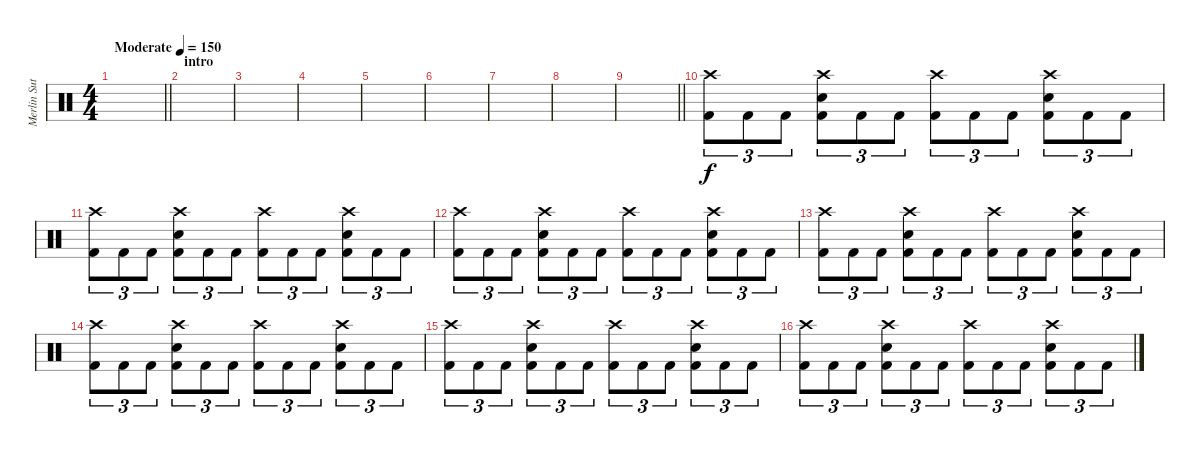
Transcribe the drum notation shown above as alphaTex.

\track ("Merlin Sutter" "Merlin Sut") {instrument percussion}
\staff {score}
\articulation defaults
\ts (4 4)
\tempo (150 "Moderate")
\clef neutral
\barLineRight lightlight
\ks c
|
\section ("" "intro")
|
|
|
|
|
|
|
\barLineRight lightlight
|
\section ("" "")
("Crash high (hit)" "Kick (hit) 2").8{tu (3 2)} "Kick (hit) 2".8{tu (3 2)} "Kick (hit) 2".8{tu (3 2)} ("Crash high (hit)" "Snare (hit) 2" "Kick (hit) 2").8{tu (3 2)} "Kick (hit) 2".8{tu (3 2)} "Kick (hit) 2".8{tu (3 2)} ("Crash high (hit)" "Kick (hit) 2").8{tu (3 2)} "Kick (hit) 2".8{tu (3 2)} "Kick (hit) 2".8{tu (3 2)} ("Crash high (hit)" "Snare (hit) 2" "Kick (hit) 2").8{tu (3 2)} "Kick (hit) 2".8{tu (3 2)} "Kick (hit) 2".8{tu (3 2)} |
("Crash high (hit)" "Kick (hit) 2").8{tu (3 2)} "Kick (hit) 2".8{tu (3 2)} "Kick (hit) 2".8{tu (3 2)} ("Crash high (hit)" "Snare (hit) 2" "Kick (hit) 2").8{tu (3 2)} "Kick (hit) 2".8{tu (3 2)} "Kick (hit) 2".8{tu (3 2)} ("Crash high (hit)" "Kick (hit) 2").8{tu (3 2)} "Kick (hit) 2".8{tu (3 2)} "Kick (hit) 2".8{tu (3 2)} ("Crash high (hit)" "Snare (hit) 2" "Kick (hit) 2").8{tu (3 2)} "Kick (hit) 2".8{tu (3 2)} "Kick (hit) 2".8{tu (3 2)} |
("Crash high (hit)" "Kick (hit) 2").8{tu (3 2)} "Kick (hit) 2".8{tu (3 2)} "Kick (hit) 2".8{tu (3 2)} ("Crash high (hit)" "Snare (hit) 2" "Kick (hit) 2").8{tu (3 2)} "Kick (hit) 2".8{tu (3 2)} "Kick (hit) 2".8{tu (3 2)} ("Crash high (hit)" "Kick (hit) 2").8{tu (3 2)} "Kick (hit) 2".8{tu (3 2)} "Kick (hit) 2".8{tu (3 2)} ("Crash high (hit)" "Snare (hit) 2" "Kick (hit) 2").8{tu (3 2)} "Kick (hit) 2".8{tu (3 2)} "Kick (hit) 2".8{tu (3 2)} |
("Crash high (hit)" "Kick (hit) 2").8{tu (3 2)} "Kick (hit) 2".8{tu (3 2)} "Kick (hit) 2".8{tu (3 2)} ("Crash high (hit)" "Snare (hit) 2" "Kick (hit) 2").8{tu (3 2)} "Kick (hit) 2".8{tu (3 2)} "Kick (hit) 2".8{tu (3 2)} ("Crash high (hit)" "Kick (hit) 2").8{tu (3 2)} "Kick (hit) 2".8{tu (3 2)} "Kick (hit) 2".8{tu (3 2)} ("Crash high (hit)" "Snare (hit) 2" "Kick (hit) 2").8{tu (3 2)} "Kick (hit) 2".8{tu (3 2)} "Kick (hit) 2".8{tu (3 2)} |
("Crash high (hit)" "Kick (hit) 2").8{tu (3 2)} "Kick (hit) 2".8{tu (3 2)} "Kick (hit) 2".8{tu (3 2)} ("Crash high (hit)" "Snare (hit) 2" "Kick (hit) 2").8{tu (3 2)} "Kick (hit) 2".8{tu (3 2)} "Kick (hit) 2".8{tu (3 2)} ("Crash high (hit)" "Kick (hit) 2").8{tu (3 2)} "Kick (hit) 2".8{tu (3 2)} "Kick (hit) 2".8{tu (3 2)} ("Crash high (hit)" "Snare (hit) 2" "Kick (hit) 2").8{tu (3 2)} "Kick (hit) 2".8{tu (3 2)} "Kick (hit) 2".8{tu (3 2)} |
("Crash high (hit)" "Kick (hit) 2").8{tu (3 2)} "Kick (hit) 2".8{tu (3 2)} "Kick (hit) 2".8{tu (3 2)} ("Crash high (hit)" "Snare (hit) 2" "Kick (hit) 2").8{tu (3 2)} "Kick (hit) 2".8{tu (3 2)} "Kick (hit) 2".8{tu (3 2)} ("Crash high (hit)" "Kick (hit) 2").8{tu (3 2)} "Kick (hit) 2".8{tu (3 2)} "Kick (hit) 2".8{tu (3 2)} ("Crash high (hit)" "Snare (hit) 2" "Kick (hit) 2").8{tu (3 2)} "Kick (hit) 2".8{tu (3 2)} "Kick (hit) 2".8{tu (3 2)} |
("Crash high (hit)" "Kick (hit) 2").8{tu (3 2)} "Kick (hit) 2".8{tu (3 2)} "Kick (hit) 2".8{tu (3 2)} ("Crash high (hit)" "Snare (hit) 2" "Kick (hit) 2").8{tu (3 2)} "Kick (hit) 2".8{tu (3 2)} "Kick (hit) 2".8{tu (3 2)} ("Crash high (hit)" "Kick (hit) 2").8{tu (3 2)} "Kick (hit) 2".8{tu (3 2)} "Kick (hit) 2".8{tu (3 2)} ("Crash high (hit)" "Snare (hit) 2" "Kick (hit) 2").8{tu (3 2)} "Kick (hit) 2".8{tu (3 2)} "Kick (hit) 2".8{tu (3 2)}
